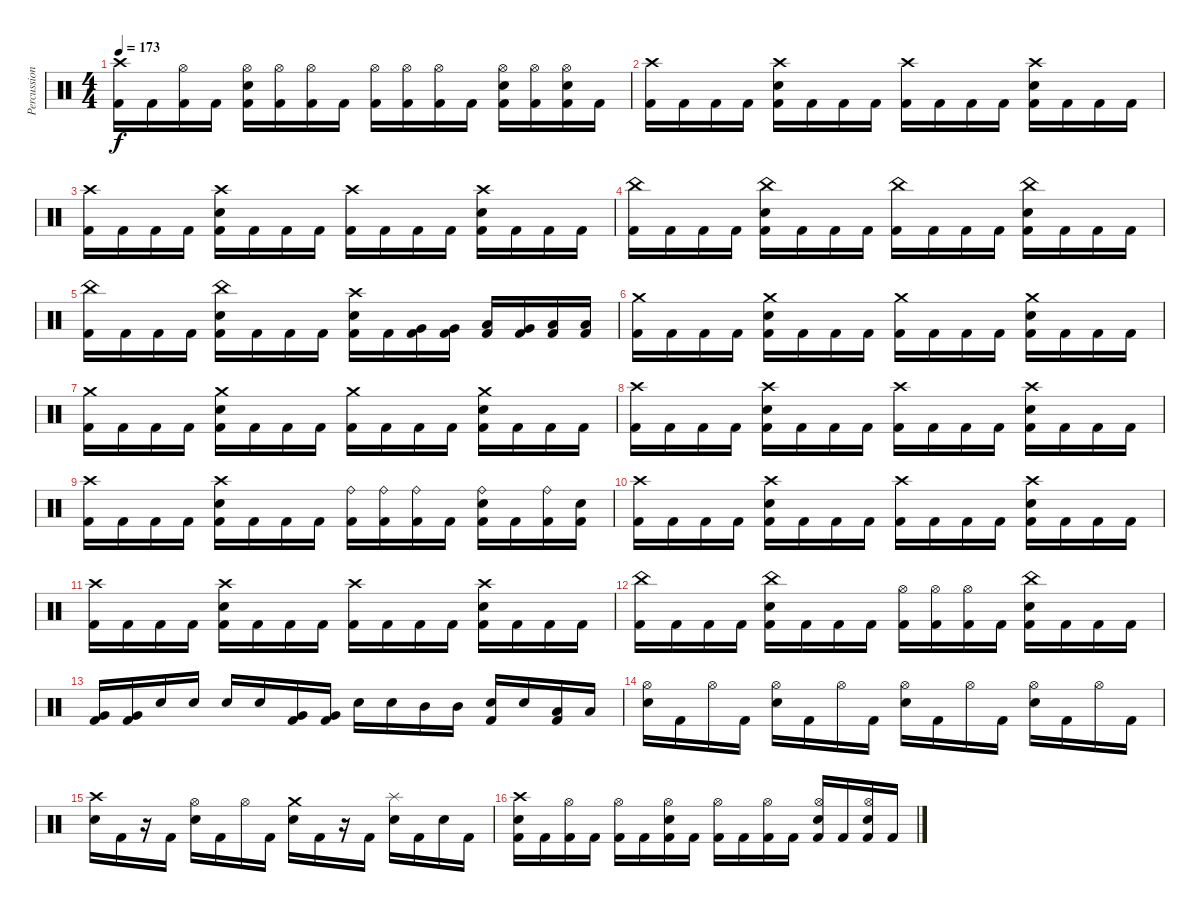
\track ("Percussion" "Percussion") {instrument percussion}
\staff {score}
\articulation defaults
\ts (4 4)
\tempo 173
\clef neutral
\ks c
("Crash high (hit)" "Kick (hit) 2").16{dy f} "Kick (hit) 2".16 ("Hi-Hat (open)" "Kick (hit) 2").16 "Kick (hit) 2".16 ("Hi-Hat (open)" "Electric Snare (hit)" "Kick (hit) 2").16 ("Hi-Hat (open)" "Kick (hit) 2").16 ("Hi-Hat (open)" "Kick (hit) 2").16 "Kick (hit) 2".16 ("Hi-Hat (open)" "Kick (hit) 2").16 ("Hi-Hat (open)" "Kick (hit) 2").16 ("Hi-Hat (open)" "Kick (hit) 2").16 "Kick (hit) 2".16 ("Hi-Hat (open)" "Electric Snare (hit)" "Kick (hit) 2").16 ("Hi-Hat (open)" "Kick (hit) 2").16 ("Hi-Hat (open)" "Electric Snare (hit)" "Kick (hit) 2").16 "Kick (hit) 2".16 |
("Crash high (hit)" "Kick (hit) 2").16 "Kick (hit) 2".16 "Kick (hit) 2".16 "Kick (hit) 2".16 ("Crash high (hit)" "Electric Snare (hit)" "Kick (hit) 2").16 "Kick (hit) 2".16 "Kick (hit) 2".16 "Kick (hit) 2".16 ("Crash high (hit)" "Kick (hit) 2").16 "Kick (hit) 2".16 "Kick (hit) 2".16 "Kick (hit) 2".16 ("Crash high (hit)" "Electric Snare (hit)" "Kick (hit) 2").16 "Kick (hit) 2".16 "Kick (hit) 2".16 "Kick (hit) 2".16 |
("Crash high (hit)" "Kick (hit) 2").16 "Kick (hit) 2".16 "Kick (hit) 2".16 "Kick (hit) 2".16 ("Crash high (hit)" "Electric Snare (hit)" "Kick (hit) 2").16 "Kick (hit) 2".16 "Kick (hit) 2".16 "Kick (hit) 2".16 ("Crash high (hit)" "Kick (hit) 2").16 "Kick (hit) 2".16 "Kick (hit) 2".16 "Kick (hit) 2".16 ("Crash high (hit)" "Electric Snare (hit)" "Kick (hit) 2").16 "Kick (hit) 2".16 "Kick (hit) 2".16 "Kick (hit) 2".16 |
("China (hit)" "Kick (hit) 2").16 "Kick (hit) 2".16 "Kick (hit) 2".16 "Kick (hit) 2".16 ("China (hit)" "Electric Snare (hit)" "Kick (hit) 2").16 "Kick (hit) 2".16 "Kick (hit) 2".16 "Kick (hit) 2".16 ("China (hit)" "Kick (hit) 2").16 "Kick (hit) 2".16 "Kick (hit) 2".16 "Kick (hit) 2".16 ("China (hit)" "Electric Snare (hit)" "Kick (hit) 2").16 "Kick (hit) 2".16 "Kick (hit) 2".16 "Kick (hit) 2".16 |
("China (hit)" "Kick (hit) 2").16 "Kick (hit) 2".16 "Kick (hit) 2".16 "Kick (hit) 2".16 ("China (hit)" "Electric Snare (hit)" "Kick (hit) 2").16 "Kick (hit) 2".16 "Kick (hit) 2".16 "Kick (hit) 2".16 ("Crash high (hit)" "Electric Snare (hit)" "Kick (hit) 2").16 "Kick (hit) 2".16 ("Very Low Tom (hit)" "Kick (hit) 2").16 ("Very Low Tom (hit)" "Kick (hit) 2").16 ("Low Floor Tom (hit)" "Kick (hit) 2").16 ("Very Low Tom (hit)" "Kick (hit) 2").16 ("Low Floor Tom (hit)" "Kick (hit) 2").16 ("Low Floor Tom (hit)" "Kick (hit) 2").16 |
("Crash medium (hit)" "Kick (hit) 2").16 "Kick (hit) 2".16 "Kick (hit) 2".16 "Kick (hit) 2".16 ("Crash medium (hit)" "Electric Snare (hit)" "Kick (hit) 2").16 "Kick (hit) 2".16 "Kick (hit) 2".16 "Kick (hit) 2".16 ("Crash medium (hit)" "Kick (hit) 2").16 "Kick (hit) 2".16 "Kick (hit) 2".16 "Kick (hit) 2".16 ("Crash medium (hit)" "Electric Snare (hit)" "Kick (hit) 2").16 "Kick (hit) 2".16 "Kick (hit) 2".16 "Kick (hit) 2".16 |
("Crash medium (hit)" "Kick (hit) 2").16 "Kick (hit) 2".16 "Kick (hit) 2".16 "Kick (hit) 2".16 ("Crash medium (hit)" "Electric Snare (hit)" "Kick (hit) 2").16 "Kick (hit) 2".16 "Kick (hit) 2".16 "Kick (hit) 2".16 ("Crash medium (hit)" "Kick (hit) 2").16 "Kick (hit) 2".16 "Kick (hit) 2".16 "Kick (hit) 2".16 ("Crash medium (hit)" "Electric Snare (hit)" "Kick (hit) 2").16 "Kick (hit) 2".16 "Kick (hit) 2".16 "Kick (hit) 2".16 |
("Crash high (hit)" "Kick (hit) 2").16 "Kick (hit) 2".16 "Kick (hit) 2".16 "Kick (hit) 2".16 ("Crash high (hit)" "Electric Snare (hit)" "Kick (hit) 2").16 "Kick (hit) 2".16 "Kick (hit) 2".16 "Kick (hit) 2".16 ("Crash high (hit)" "Kick (hit) 2").16 "Kick (hit) 2".16 "Kick (hit) 2".16 "Kick (hit) 2".16 ("Crash high (hit)" "Electric Snare (hit)" "Kick (hit) 2").16 "Kick (hit) 2".16 "Kick (hit) 2".16 "Kick (hit) 2".16 |
("Crash high (hit)" "Kick (hit) 2").16 "Kick (hit) 2".16 "Kick (hit) 2".16 "Kick (hit) 2".16 ("Crash high (hit)" "Electric Snare (hit)" "Kick (hit) 2").16 "Kick (hit) 2".16 "Kick (hit) 2".16 "Kick (hit) 2".16 ("Ride (bell)" "Kick (hit) 2").16 ("Ride (bell)" "Kick (hit) 2").16 ("Ride (bell)" "Kick (hit) 2").16 "Kick (hit) 2".16 ("Ride (bell)" "Electric Snare (hit)" "Kick (hit) 2").16 "Kick (hit) 2".16 ("Ride (bell)" "Kick (hit) 2").16 ("Electric Snare (hit)" "Kick (hit) 2").16 |
("Crash high (hit)" "Kick (hit) 2").16 "Kick (hit) 2".16 "Kick (hit) 2".16 "Kick (hit) 2".16 ("Crash high (hit)" "Electric Snare (hit)" "Kick (hit) 2").16 "Kick (hit) 2".16 "Kick (hit) 2".16 "Kick (hit) 2".16 ("Crash high (hit)" "Kick (hit) 2").16 "Kick (hit) 2".16 "Kick (hit) 2".16 "Kick (hit) 2".16 ("Crash high (hit)" "Electric Snare (hit)" "Kick (hit) 2").16 "Kick (hit) 2".16 "Kick (hit) 2".16 "Kick (hit) 2".16 |
("Crash high (hit)" "Kick (hit) 2").16 "Kick (hit) 2".16 "Kick (hit) 2".16 "Kick (hit) 2".16 ("Crash high (hit)" "Electric Snare (hit)" "Kick (hit) 2").16 "Kick (hit) 2".16 "Kick (hit) 2".16 "Kick (hit) 2".16 ("Crash high (hit)" "Kick (hit) 2").16 "Kick (hit) 2".16 "Kick (hit) 2".16 "Kick (hit) 2".16 ("Crash high (hit)" "Electric Snare (hit)" "Kick (hit) 2").16 "Kick (hit) 2".16 "Kick (hit) 2".16 "Kick (hit) 2".16 |
("China (hit)" "Kick (hit) 2").16 "Kick (hit) 2".16 "Kick (hit) 2".16 "Kick (hit) 2".16 ("China (hit)" "Electric Snare (hit)" "Kick (hit) 2").16 "Kick (hit) 2".16 "Kick (hit) 2".16 "Kick (hit) 2".16 ("Hi-Hat (open)" "Kick (hit) 2").16 ("Hi-Hat (open)" "Kick (hit) 2").16 ("Hi-Hat (open)" "Kick (hit) 2").16 "Kick (hit) 2".16 ("China (hit)" "Electric Snare (hit)" "Kick (hit) 2").16 "Kick (hit) 2".16 "Kick (hit) 2".16 "Kick (hit) 2".16 |
("Very Low Tom (hit)" "Kick (hit) 2").16 ("Very Low Tom (hit)" "Kick (hit) 2").16 "Electric Snare (hit)".16 "Electric Snare (hit)".16 "Electric Snare (hit)".16 "Electric Snare (hit)".16 ("Very Low Tom (hit)" "Kick (hit) 2").16 ("Very Low Tom (hit)" "Kick (hit) 2").16 "Electric Snare (hit)".16 "Electric Snare (hit)".16 "Mid Tom (hit)".16 "Mid Tom (hit)".16 ("Electric Snare (hit)" "Kick (hit) 2").16 "Electric Snare (hit)".16 ("Low Floor Tom (hit)" "Kick (hit) 2").16 "Low Floor Tom (hit)".16 |
("Hi-Hat (open)" "Electric Snare (hit)").16 "Kick (hit) 2".16 "Hi-Hat (open)".16 "Kick (hit) 2".16 ("Hi-Hat (open)" "Electric Snare (hit)").16 "Kick (hit) 2".16 "Hi-Hat (open)".16 "Kick (hit) 2".16 ("Hi-Hat (open)" "Electric Snare (hit)").16 "Kick (hit) 2".16 "Hi-Hat (open)".16 "Kick (hit) 2".16 ("Hi-Hat (open)" "Electric Snare (hit)").16 "Kick (hit) 2".16 "Hi-Hat (open)".16 "Kick (hit) 2".16 |
("Crash high (hit)" "Electric Snare (hit)").16 "Kick (hit) 2".16 r.16 "Kick (hit) 2".16 ("Hi-Hat (open)" "Electric Snare (hit)").16 "Kick (hit) 2".16 "Hi-Hat (open)".16 "Kick (hit) 2".16 ("Crash medium (hit)" "Electric Snare (hit)").16 "Kick (hit) 2".16 r.16 "Kick (hit) 2".16 ("Splash (hit)" "Electric Snare (hit)").16 "Kick (hit) 2".16 "Electric Snare (hit)".16 "Kick (hit) 2".16 |
("Crash high (hit)" "Electric Snare (hit)" "Kick (hit) 2").16 "Kick (hit) 2".16 ("Hi-Hat (open)" "Kick (hit) 2").16 "Kick (hit) 2".16 ("Hi-Hat (open)" "Kick (hit) 2").16 "Kick (hit) 2".16 ("Hi-Hat (open)" "Electric Snare (hit)" "Kick (hit) 2").16 "Kick (hit) 2".16 ("Hi-Hat (open)" "Kick (hit) 2").16 "Kick (hit) 2".16 ("Hi-Hat (open)" "Kick (hit) 2").16 "Kick (hit) 2".16 ("Hi-Hat (open)" "Electric Snare (hit)" "Kick (hit) 2").16 "Kick (hit) 2".16 ("Hi-Hat (open)" "Electric Snare (hit)" "Kick (hit) 2").16 "Kick (hit) 2".16
